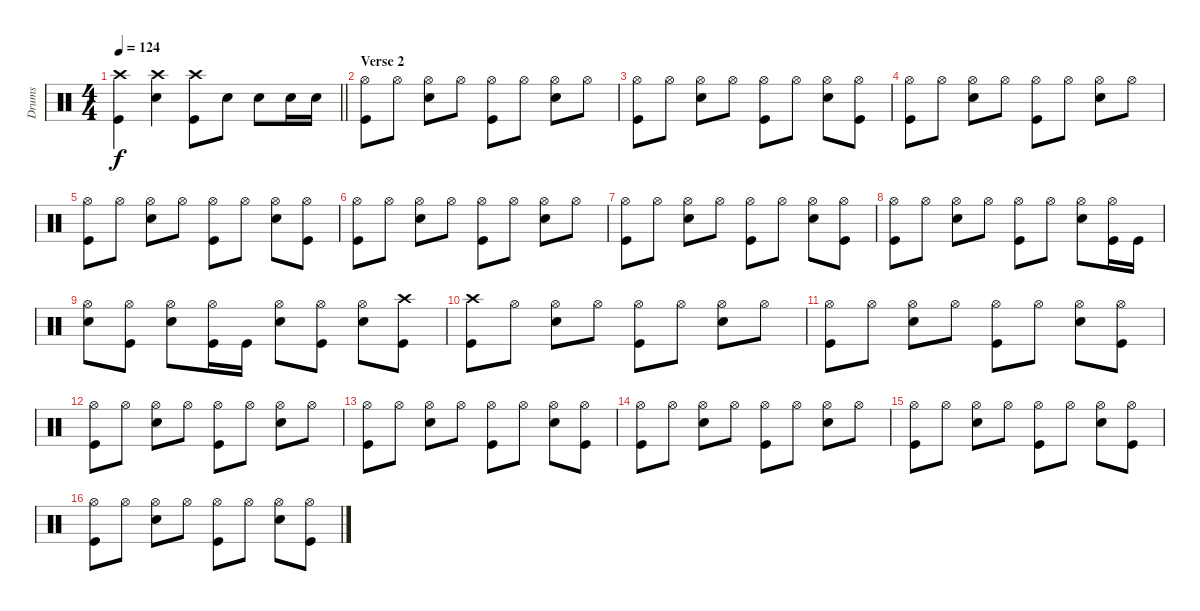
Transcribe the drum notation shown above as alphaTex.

\track ("Drums" "Drums") {instrument percussion}
\staff {score}
\articulation defaults
\ts (4 4)
\tempo 124
\clef neutral
\barLineRight lightlight
\ks c
("Kick (hit)" "Crash high (hit)").4{dy f} ("Snare (hit) 2" "Crash high (hit)").4 ("Kick (hit)" "Crash high (hit)").8 "Snare (hit) 2".8 "Snare (hit) 2".8 "Snare (hit) 2".16 "Snare (hit) 2".16 |
\section ("" "Verse 2")
("Kick (hit)" "Hi-Hat (open)").8 "Hi-Hat (open)".8 ("Snare (hit) 2" "Hi-Hat (open)").8 "Hi-Hat (open)".8 ("Kick (hit)" "Hi-Hat (open)").8 "Hi-Hat (open)".8 ("Snare (hit) 2" "Hi-Hat (open)").8 "Hi-Hat (open)".8 |
("Kick (hit)" "Hi-Hat (open)").8 "Hi-Hat (open)".8 ("Snare (hit) 2" "Hi-Hat (open)").8 "Hi-Hat (open)".8 ("Kick (hit)" "Hi-Hat (open)").8 "Hi-Hat (open)".8 ("Snare (hit) 2" "Hi-Hat (open)").8 ("Hi-Hat (open)" "Kick (hit)").8 |
("Kick (hit)" "Hi-Hat (open)").8 "Hi-Hat (open)".8 ("Snare (hit) 2" "Hi-Hat (open)").8 "Hi-Hat (open)".8 ("Kick (hit)" "Hi-Hat (open)").8 "Hi-Hat (open)".8 ("Snare (hit) 2" "Hi-Hat (open)").8 "Hi-Hat (open)".8 |
("Kick (hit)" "Hi-Hat (open)").8 "Hi-Hat (open)".8 ("Snare (hit) 2" "Hi-Hat (open)").8 "Hi-Hat (open)".8 ("Kick (hit)" "Hi-Hat (open)").8 "Hi-Hat (open)".8 ("Snare (hit) 2" "Hi-Hat (open)").8 ("Hi-Hat (open)" "Kick (hit)").8 |
("Kick (hit)" "Hi-Hat (open)").8 "Hi-Hat (open)".8 ("Snare (hit) 2" "Hi-Hat (open)").8 "Hi-Hat (open)".8 ("Kick (hit)" "Hi-Hat (open)").8 "Hi-Hat (open)".8 ("Snare (hit) 2" "Hi-Hat (open)").8 "Hi-Hat (open)".8 |
("Kick (hit)" "Hi-Hat (open)").8 "Hi-Hat (open)".8 ("Snare (hit) 2" "Hi-Hat (open)").8 "Hi-Hat (open)".8 ("Kick (hit)" "Hi-Hat (open)").8 "Hi-Hat (open)".8 ("Snare (hit) 2" "Hi-Hat (open)").8 ("Hi-Hat (open)" "Kick (hit)").8 |
("Kick (hit)" "Hi-Hat (open)").8 "Hi-Hat (open)".8 ("Snare (hit) 2" "Hi-Hat (open)").8 "Hi-Hat (open)".8 ("Kick (hit)" "Hi-Hat (open)").8 "Hi-Hat (open)".8 ("Snare (hit) 2" "Hi-Hat (open)").8 ("Hi-Hat (open)" "Kick (hit)").16 "Kick (hit)".16 |
("Hi-Hat (open)" "Snare (hit) 2").8 ("Kick (hit)" "Hi-Hat (open)").8 ("Snare (hit) 2" "Hi-Hat (open)").8 ("Kick (hit)" "Hi-Hat (open)").16 "Kick (hit)".16 ("Hi-Hat (open)" "Snare (hit) 2").8 ("Kick (hit)" "Hi-Hat (open)").8 ("Snare (hit) 2" "Hi-Hat (open)").8 ("Kick (hit)" "Crash high (hit)").8 |
("Kick (hit)" "Crash high (hit)").8 "Hi-Hat (open)".8 ("Snare (hit) 2" "Hi-Hat (open)").8 "Hi-Hat (open)".8 ("Kick (hit)" "Hi-Hat (open)").8 "Hi-Hat (open)".8 ("Snare (hit) 2" "Hi-Hat (open)").8 "Hi-Hat (open)".8 |
("Kick (hit)" "Hi-Hat (open)").8 "Hi-Hat (open)".8 ("Snare (hit) 2" "Hi-Hat (open)").8 "Hi-Hat (open)".8 ("Kick (hit)" "Hi-Hat (open)").8 "Hi-Hat (open)".8 ("Snare (hit) 2" "Hi-Hat (open)").8 ("Hi-Hat (open)" "Kick (hit)").8 |
("Kick (hit)" "Hi-Hat (open)").8 "Hi-Hat (open)".8 ("Snare (hit) 2" "Hi-Hat (open)").8 "Hi-Hat (open)".8 ("Kick (hit)" "Hi-Hat (open)").8 "Hi-Hat (open)".8 ("Snare (hit) 2" "Hi-Hat (open)").8 "Hi-Hat (open)".8 |
("Kick (hit)" "Hi-Hat (open)").8 "Hi-Hat (open)".8 ("Snare (hit) 2" "Hi-Hat (open)").8 "Hi-Hat (open)".8 ("Kick (hit)" "Hi-Hat (open)").8 "Hi-Hat (open)".8 ("Snare (hit) 2" "Hi-Hat (open)").8 ("Hi-Hat (open)" "Kick (hit)").8 |
("Kick (hit)" "Hi-Hat (open)").8 "Hi-Hat (open)".8 ("Snare (hit) 2" "Hi-Hat (open)").8 "Hi-Hat (open)".8 ("Kick (hit)" "Hi-Hat (open)").8 "Hi-Hat (open)".8 ("Snare (hit) 2" "Hi-Hat (open)").8 "Hi-Hat (open)".8 |
("Kick (hit)" "Hi-Hat (open)").8 "Hi-Hat (open)".8 ("Snare (hit) 2" "Hi-Hat (open)").8 "Hi-Hat (open)".8 ("Kick (hit)" "Hi-Hat (open)").8 "Hi-Hat (open)".8 ("Snare (hit) 2" "Hi-Hat (open)").8 ("Hi-Hat (open)" "Kick (hit)").8 |
("Kick (hit)" "Hi-Hat (open)").8 "Hi-Hat (open)".8 ("Snare (hit) 2" "Hi-Hat (open)").8 "Hi-Hat (open)".8 ("Kick (hit)" "Hi-Hat (open)").8 "Hi-Hat (open)".8 ("Snare (hit) 2" "Hi-Hat (open)").8 ("Hi-Hat (open)" "Kick (hit)").8
